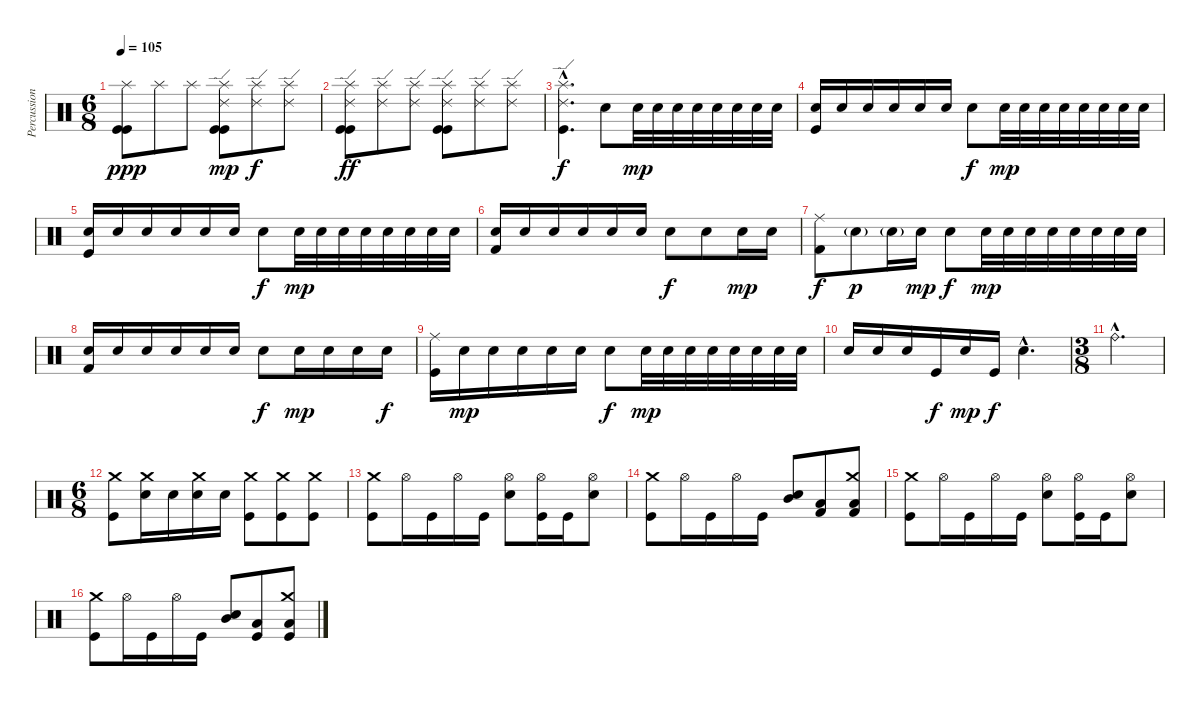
\track ("Percussion" "Percussion") {instrument percussion}
\staff {score}
\articulation defaults
\ts (6 8)
\tempo 105
\clef neutral
\ks c
("Splash (hit)" "Kick (hit)" "Kick (hit)").8{dy ppp} "Splash (hit)".8 "Splash (hit)".8 ("Splash (hit)" "Ride (edge) 2" "Kick (hit)" "Kick (hit)").8{dy mp} ("Splash (hit)" "Ride (edge) 2").8{dy f} ("Splash (hit)" "Ride (edge) 2").8 |
("Splash (hit)" "Ride (edge) 2" "Kick (hit)" "Kick (hit)").8{dy ff} ("Splash (hit)" "Ride (edge) 2").8 ("Splash (hit)" "Ride (edge) 2").8 ("Splash (hit)" "Ride (edge) 2" "Kick (hit)" "Kick (hit)").8 ("Splash (hit)" "Ride (edge) 2").8 ("Splash (hit)" "Ride (edge) 2").8 |
("Ride (edge) 2"{hac} "Splash (hit)"{hac} "Kick (hit)"{hac}).4{d dy f} "Electric Snare (hit)".8 "Electric Snare (hit)".32{dy mp} "Electric Snare (hit)".32 "Electric Snare (hit)".32 "Electric Snare (hit)".32 "Electric Snare (hit)".32 "Electric Snare (hit)".32 "Electric Snare (hit)".32 "Electric Snare (hit)".32 |
("Electric Snare (hit)" "Kick (hit)").16 "Electric Snare (hit)".16 "Electric Snare (hit)".16 "Electric Snare (hit)".16 "Electric Snare (hit)".16 "Electric Snare (hit)".16 "Electric Snare (hit)".8{dy f} "Electric Snare (hit)".32{dy mp} "Electric Snare (hit)".32 "Electric Snare (hit)".32 "Electric Snare (hit)".32 "Electric Snare (hit)".32 "Electric Snare (hit)".32 "Electric Snare (hit)".32 "Electric Snare (hit)".32 |
("Electric Snare (hit)" "Kick (hit)").16 "Electric Snare (hit)".16 "Electric Snare (hit)".16 "Electric Snare (hit)".16 "Electric Snare (hit)".16 "Electric Snare (hit)".16 "Electric Snare (hit)".8{dy f} "Electric Snare (hit)".32{dy mp} "Electric Snare (hit)".32 "Electric Snare (hit)".32 "Electric Snare (hit)".32 "Electric Snare (hit)".32 "Electric Snare (hit)".32 "Electric Snare (hit)".32 "Electric Snare (hit)".32 |
("Electric Snare (hit)" "Kick (hit) 2").16 "Electric Snare (hit)".16 "Electric Snare (hit)".16 "Electric Snare (hit)".16 "Electric Snare (hit)".16 "Electric Snare (hit)".16 "Electric Snare (hit)".8{dy f} "Electric Snare (hit)".8 "Electric Snare (hit)".16{dy mp} "Electric Snare (hit)".16 |
("Ride (middle)" "Kick (hit) 2").8{dy f} "Electric Snare (hit)"{g}.8{dy p} "Electric Snare (hit)"{g}.16 "Electric Snare (hit)".16{dy mp} "Electric Snare (hit)".8{dy f} "Electric Snare (hit)".32{dy mp} "Electric Snare (hit)".32 "Electric Snare (hit)".32 "Electric Snare (hit)".32 "Electric Snare (hit)".32 "Electric Snare (hit)".32 "Electric Snare (hit)".32 "Electric Snare (hit)".32 |
("Electric Snare (hit)" "Kick (hit) 2").16 "Electric Snare (hit)".16 "Electric Snare (hit)".16 "Electric Snare (hit)".16 "Electric Snare (hit)".16 "Electric Snare (hit)".16 "Electric Snare (hit)".8{dy f} "Electric Snare (hit)".16{dy mp} "Electric Snare (hit)".16 "Electric Snare (hit)".16 "Electric Snare (hit)".16{dy f} |
("Ride (middle)" "Kick (hit)").16 "Electric Snare (hit)".16{dy mp} "Electric Snare (hit)".16 "Electric Snare (hit)".16 "Electric Snare (hit)".16 "Electric Snare (hit)".16 "Electric Snare (hit)".8{dy f} "Electric Snare (hit)".32{dy mp} "Electric Snare (hit)".32 "Electric Snare (hit)".32 "Electric Snare (hit)".32 "Electric Snare (hit)".32 "Electric Snare (hit)".32 "Electric Snare (hit)".32 "Electric Snare (hit)".32 |
"Electric Snare (hit)".16 "Electric Snare (hit)".16 "Electric Snare (hit)".16 "Kick (hit)".16{dy f} "Electric Snare (hit)".16{dy mp} "Kick (hit)".16{dy f} "Electric Snare (hit)"{hac}.4{d} |
\ts (3 8)
"Ride (bell)"{hac}.4{d} |
\ts (6 8)
("Crash medium (hit)" "Kick (hit)").8 ("Crash medium (hit)" "Electric Snare (hit)").16 "Electric Snare (hit)".16 ("Crash medium (hit)" "Electric Snare (hit)").16 "Electric Snare (hit)".16 ("Crash medium (hit)" "Kick (hit)").8 ("Crash medium (hit)" "Kick (hit)").8 ("Crash medium (hit)" "Kick (hit)").8 |
("Crash medium (hit)" "Kick (hit)").8 "Hi-Hat (open)".16 "Kick (hit)".16 "Hi-Hat (open)".16 "Kick (hit)".16 ("Hi-Hat (open)" "Electric Snare (hit)").8 ("Hi-Hat (open)" "Kick (hit)").16 "Kick (hit)".16 ("Hi-Hat (open)" "Electric Snare (hit)").8 |
("Crash medium (hit)" "Kick (hit)").8 "Hi-Hat (open)".16 "Kick (hit)".16 "Hi-Hat (open)".16 "Kick (hit)".16 ("Electric Snare (hit)" "Mid Tom (hit)").8 ("Low Tom (hit)" "Kick (hit) 2").8 ("Crash medium (hit)" "Low Floor Tom (hit)" "Kick (hit) 2").8 |
("Crash medium (hit)" "Kick (hit)").8 "Hi-Hat (open)".16 "Kick (hit)".16 "Hi-Hat (open)".16 "Kick (hit)".16 ("Hi-Hat (open)" "Electric Snare (hit)").8 ("Hi-Hat (open)" "Kick (hit)").16 "Kick (hit)".16 ("Hi-Hat (open)" "Electric Snare (hit)").8 |
("Crash medium (hit)" "Kick (hit)").8 "Hi-Hat (open)".16 "Kick (hit)".16 "Hi-Hat (open)".16 "Kick (hit)".16 ("Electric Snare (hit)" "Mid Tom (hit)").8 ("Low Tom (hit)" "Kick (hit)").8 ("Crash medium (hit)" "Low Floor Tom (hit)" "Kick (hit)").8
